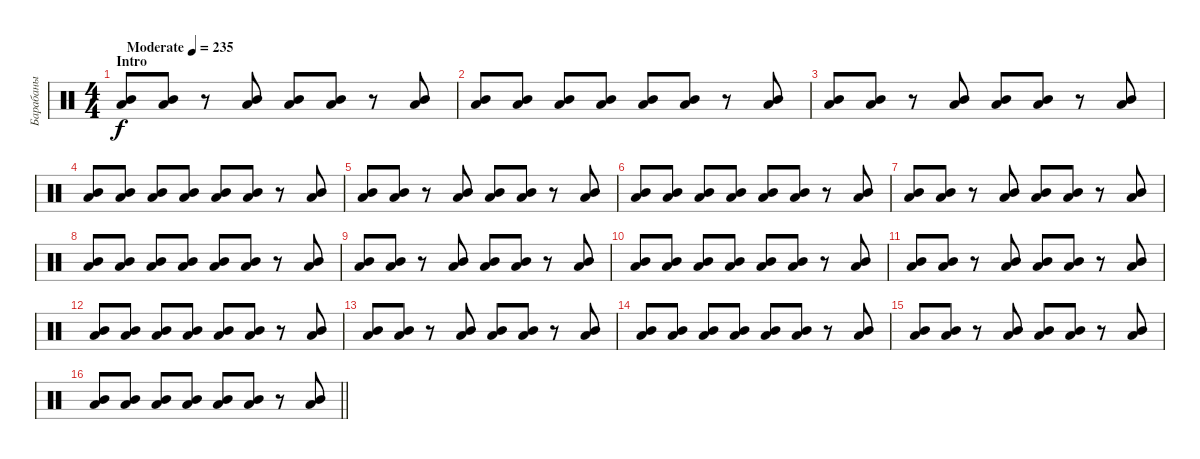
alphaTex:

\track ("Барабаны" "Барабаны") {instrument percussion}
\staff {score}
\articulation defaults
\ts (4 4)
\section ("" "Intro")
\tempo (235 "Moderate")
\clef neutral
\ks c
("Mid Tom (hit)" "Low Tom (hit)").8{dy f} ("Mid Tom (hit)" "Low Tom (hit)").8 r.8 ("Mid Tom (hit)" "Low Tom (hit)").8 ("Mid Tom (hit)" "Low Tom (hit)").8 ("Mid Tom (hit)" "Low Tom (hit)").8 r.8 ("Mid Tom (hit)" "Low Tom (hit)").8 |
("Mid Tom (hit)" "Low Tom (hit)").8 ("Mid Tom (hit)" "Low Tom (hit)").8 ("Mid Tom (hit)" "Low Tom (hit)").8 ("Mid Tom (hit)" "Low Tom (hit)").8 ("Mid Tom (hit)" "Low Tom (hit)").8 ("Mid Tom (hit)" "Low Tom (hit)").8 r.8 ("Mid Tom (hit)" "Low Tom (hit)").8 |
("Mid Tom (hit)" "Low Tom (hit)").8 ("Mid Tom (hit)" "Low Tom (hit)").8 r.8 ("Mid Tom (hit)" "Low Tom (hit)").8 ("Mid Tom (hit)" "Low Tom (hit)").8 ("Mid Tom (hit)" "Low Tom (hit)").8 r.8 ("Mid Tom (hit)" "Low Tom (hit)").8 |
("Mid Tom (hit)" "Low Tom (hit)").8 ("Mid Tom (hit)" "Low Tom (hit)").8 ("Mid Tom (hit)" "Low Tom (hit)").8 ("Mid Tom (hit)" "Low Tom (hit)").8 ("Mid Tom (hit)" "Low Tom (hit)").8 ("Mid Tom (hit)" "Low Tom (hit)").8 r.8 ("Mid Tom (hit)" "Low Tom (hit)").8 |
("Mid Tom (hit)" "Low Tom (hit)").8 ("Mid Tom (hit)" "Low Tom (hit)").8 r.8 ("Mid Tom (hit)" "Low Tom (hit)").8 ("Mid Tom (hit)" "Low Tom (hit)").8 ("Mid Tom (hit)" "Low Tom (hit)").8 r.8 ("Mid Tom (hit)" "Low Tom (hit)").8 |
("Mid Tom (hit)" "Low Tom (hit)").8 ("Mid Tom (hit)" "Low Tom (hit)").8 ("Mid Tom (hit)" "Low Tom (hit)").8 ("Mid Tom (hit)" "Low Tom (hit)").8 ("Mid Tom (hit)" "Low Tom (hit)").8 ("Mid Tom (hit)" "Low Tom (hit)").8 r.8 ("Mid Tom (hit)" "Low Tom (hit)").8 |
("Mid Tom (hit)" "Low Tom (hit)").8 ("Mid Tom (hit)" "Low Tom (hit)").8 r.8 ("Mid Tom (hit)" "Low Tom (hit)").8 ("Mid Tom (hit)" "Low Tom (hit)").8 ("Mid Tom (hit)" "Low Tom (hit)").8 r.8 ("Mid Tom (hit)" "Low Tom (hit)").8 |
("Mid Tom (hit)" "Low Tom (hit)").8 ("Mid Tom (hit)" "Low Tom (hit)").8 ("Mid Tom (hit)" "Low Tom (hit)").8 ("Mid Tom (hit)" "Low Tom (hit)").8 ("Mid Tom (hit)" "Low Tom (hit)").8 ("Mid Tom (hit)" "Low Tom (hit)").8 r.8 ("Mid Tom (hit)" "Low Tom (hit)").8 |
("Mid Tom (hit)" "Low Tom (hit)").8 ("Mid Tom (hit)" "Low Tom (hit)").8 r.8 ("Mid Tom (hit)" "Low Tom (hit)").8 ("Mid Tom (hit)" "Low Tom (hit)").8 ("Mid Tom (hit)" "Low Tom (hit)").8 r.8 ("Mid Tom (hit)" "Low Tom (hit)").8 |
("Mid Tom (hit)" "Low Tom (hit)").8 ("Mid Tom (hit)" "Low Tom (hit)").8 ("Mid Tom (hit)" "Low Tom (hit)").8 ("Mid Tom (hit)" "Low Tom (hit)").8 ("Mid Tom (hit)" "Low Tom (hit)").8 ("Mid Tom (hit)" "Low Tom (hit)").8 r.8 ("Mid Tom (hit)" "Low Tom (hit)").8 |
("Mid Tom (hit)" "Low Tom (hit)").8 ("Mid Tom (hit)" "Low Tom (hit)").8 r.8 ("Mid Tom (hit)" "Low Tom (hit)").8 ("Mid Tom (hit)" "Low Tom (hit)").8 ("Mid Tom (hit)" "Low Tom (hit)").8 r.8 ("Mid Tom (hit)" "Low Tom (hit)").8 |
("Mid Tom (hit)" "Low Tom (hit)").8 ("Mid Tom (hit)" "Low Tom (hit)").8 ("Mid Tom (hit)" "Low Tom (hit)").8 ("Mid Tom (hit)" "Low Tom (hit)").8 ("Mid Tom (hit)" "Low Tom (hit)").8 ("Mid Tom (hit)" "Low Tom (hit)").8 r.8 ("Mid Tom (hit)" "Low Tom (hit)").8 |
("Mid Tom (hit)" "Low Tom (hit)").8 ("Mid Tom (hit)" "Low Tom (hit)").8 r.8 ("Mid Tom (hit)" "Low Tom (hit)").8 ("Mid Tom (hit)" "Low Tom (hit)").8 ("Mid Tom (hit)" "Low Tom (hit)").8 r.8 ("Mid Tom (hit)" "Low Tom (hit)").8 |
("Mid Tom (hit)" "Low Tom (hit)").8 ("Mid Tom (hit)" "Low Tom (hit)").8 ("Mid Tom (hit)" "Low Tom (hit)").8 ("Mid Tom (hit)" "Low Tom (hit)").8 ("Mid Tom (hit)" "Low Tom (hit)").8 ("Mid Tom (hit)" "Low Tom (hit)").8 r.8 ("Mid Tom (hit)" "Low Tom (hit)").8 |
("Mid Tom (hit)" "Low Tom (hit)").8 ("Mid Tom (hit)" "Low Tom (hit)").8 r.8 ("Mid Tom (hit)" "Low Tom (hit)").8 ("Mid Tom (hit)" "Low Tom (hit)").8 ("Mid Tom (hit)" "Low Tom (hit)").8 r.8 ("Mid Tom (hit)" "Low Tom (hit)").8 |
\barLineRight lightlight
("Mid Tom (hit)" "Low Tom (hit)").8 ("Mid Tom (hit)" "Low Tom (hit)").8 ("Mid Tom (hit)" "Low Tom (hit)").8 ("Mid Tom (hit)" "Low Tom (hit)").8 ("Mid Tom (hit)" "Low Tom (hit)").8 ("Mid Tom (hit)" "Low Tom (hit)").8 r.8 ("Mid Tom (hit)" "Low Tom (hit)").8
